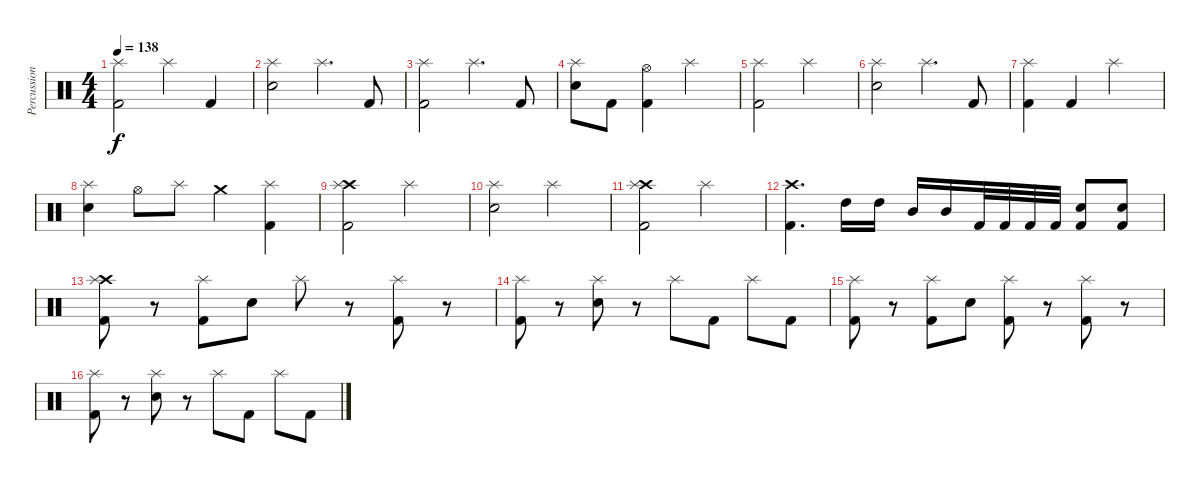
\track ("Percussions" "Percussion") {instrument percussion}
\staff {score}
\articulation defaults
\ts (4 4)
\tempo 138
\clef neutral
\ks c
("Splash (hit)" "Kick (hit) 2").2{dy f} "Splash (hit)".4 "Kick (hit) 2".4 |
("Splash (hit)" "Snare (hit) 2").2 "Splash (hit)".4{d} "Kick (hit) 2".8 |
("Splash (hit)" "Kick (hit) 2").2 "Splash (hit)".4{d} "Kick (hit) 2".8 |
("Splash (hit)" "Snare (hit) 2").8 "Kick (hit) 2".8 ("Hi-Hat (open)" "Kick (hit) 2").4 "Splash (hit)".2 |
("Splash (hit)" "Kick (hit) 2").2 "Splash (hit)".2 |
("Splash (hit)" "Snare (hit) 2").2 "Splash (hit)".4{d} "Kick (hit) 2".8 |
("Splash (hit)" "Kick (hit) 2").4 "Kick (hit) 2".4 "Splash (hit)".2 |
("Splash (hit)" "Snare (hit) 2").4 "Hi-Hat (open)".8 "Splash (hit)".8 "Crash medium (hit)".4 ("Splash (hit)" "Kick (hit) 2").4 |
("Crash high (hit)" "Splash (hit)" "Kick (hit) 2").2 "Splash (hit)".2 |
("Splash (hit)" "Snare (hit) 2").2 "Splash (hit)".2 |
("Crash high (hit)" "Splash (hit)" "Kick (hit) 2").2 "Splash (hit)".2 |
("Crash high (hit)" "Kick (hit) 2").4{d} "High Tom (hit)".16 "High Tom (hit)".16 "Mid Tom (hit)".16 "Mid Tom (hit)".16 "Kick (hit) 2".32 "Kick (hit) 2".32 "Kick (hit) 2".32 "Kick (hit) 2".32 ("Snare (hit) 2" "Kick (hit) 2").8 ("Snare (hit) 2" "Kick (hit) 2").8 |
("Crash high (hit)" "Splash (hit)" "Kick (hit) 2").8 r.8 ("Splash (hit)" "Kick (hit) 2").8 "Snare (hit) 2".8 "Splash (hit)".8 r.8 ("Splash (hit)" "Kick (hit) 2").8 r.8 |
("Splash (hit)" "Kick (hit) 2").8 r.8 ("Splash (hit)" "Snare (hit) 2").8 r.8 "Splash (hit)".8 "Kick (hit) 2".8 "Splash (hit)".8 "Kick (hit) 2".8 |
("Splash (hit)" "Kick (hit) 2").8 r.8 ("Splash (hit)" "Kick (hit) 2").8 "Snare (hit) 2".8 ("Splash (hit)" "Kick (hit) 2").8 r.8 ("Splash (hit)" "Kick (hit) 2").8 r.8 |
("Splash (hit)" "Kick (hit) 2").8 r.8 ("Splash (hit)" "Snare (hit) 2").8 r.8 "Splash (hit)".8 "Kick (hit) 2".8 "Splash (hit)".8 "Kick (hit) 2".8
